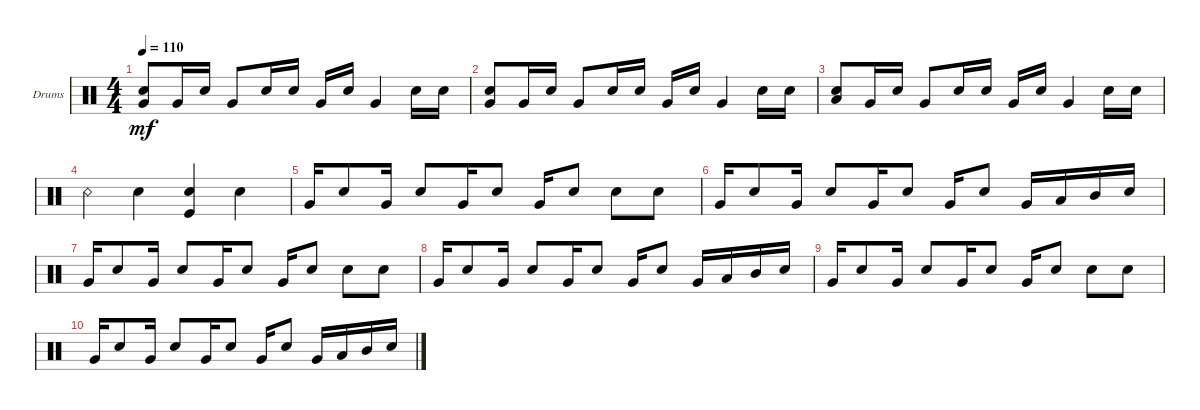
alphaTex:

\defaultSystemsLayout 4
\bracketExtendMode groupsimilarinstruments
\firstSystemTrackNameOrientation horizontal
\otherSystemsTrackNameOrientation horizontal
\track ("Drumkit" "Drums") {instrument percussion}
\staff {score}
\articulation defaults
\ts (4 4)
\tempo 110
\clef neutral
\ks c
("Snare (hit) 2" "Very Low Tom (hit)").8{dy mf} "Very Low Tom (hit)".16 "Snare (hit) 2".16 "Very Low Tom (hit)".8 "Snare (hit) 2".16 "Snare (hit) 2".16 "Very Low Tom (hit)".16 "Snare (hit) 2".16 "Very Low Tom (hit)".4 "Snare (hit) 2".16 "Snare (hit) 2".16 |
("Snare (hit) 2" "Very Low Tom (hit)").8 "Very Low Tom (hit)".16 "Snare (hit) 2".16 "Very Low Tom (hit)".8 "Snare (hit) 2".16 "Snare (hit) 2".16 "Very Low Tom (hit)".16 "Snare (hit) 2".16 "Very Low Tom (hit)".4 "Snare (hit) 2".16 "Snare (hit) 2".16 |
("Snare (hit) 2" "Low Tom (hit)").8 "Very Low Tom (hit)".16 "Snare (hit) 2".16 "Very Low Tom (hit)".8 "Snare (hit) 2".16 "Snare (hit) 2".16 "Very Low Tom (hit)".16 "Snare (hit) 2".16 "Very Low Tom (hit)".4 "Snare (hit) 2".16 "Snare (hit) 2".16 |
"Snare (rim shot)".4 "Snare (hit) 2".4 ("Snare (hit) 2" "Kick (hit)").4 "Snare (hit) 2".4 |
"Very Low Tom (hit)".16 "Snare (hit) 2".8 "Very Low Tom (hit)".16 "Snare (hit) 2".8 "Very Low Tom (hit)".16 "Snare (hit) 2".8 "Very Low Tom (hit)".16 "Snare (hit) 2".8 "Snare (hit) 2".8 "Snare (hit) 2".8 |
"Very Low Tom (hit)".16 "Snare (hit) 2".8 "Very Low Tom (hit)".16 "Snare (hit) 2".8 "Very Low Tom (hit)".16 "Snare (hit) 2".8 "Very Low Tom (hit)".16 "Snare (hit) 2".8 "Very Low Tom (hit)".16 "Low Tom (hit)".16 "Mid Tom (hit)".16 "Snare (hit) 2".16 |
"Very Low Tom (hit)".16 "Snare (hit) 2".8 "Very Low Tom (hit)".16 "Snare (hit) 2".8 "Very Low Tom (hit)".16 "Snare (hit) 2".8 "Very Low Tom (hit)".16 "Snare (hit) 2".8 "Snare (hit) 2".8 "Snare (hit) 2".8 |
"Very Low Tom (hit)".16 "Snare (hit) 2".8 "Very Low Tom (hit)".16 "Snare (hit) 2".8 "Very Low Tom (hit)".16 "Snare (hit) 2".8 "Very Low Tom (hit)".16 "Snare (hit) 2".8 "Very Low Tom (hit)".16 "Low Tom (hit)".16 "Mid Tom (hit)".16 "Snare (hit) 2".16 |
"Very Low Tom (hit)".16 "Snare (hit) 2".8 "Very Low Tom (hit)".16 "Snare (hit) 2".8 "Very Low Tom (hit)".16 "Snare (hit) 2".8 "Very Low Tom (hit)".16 "Snare (hit) 2".8 "Snare (hit) 2".8 "Snare (hit) 2".8 |
"Very Low Tom (hit)".16 "Snare (hit) 2".8 "Very Low Tom (hit)".16 "Snare (hit) 2".8 "Very Low Tom (hit)".16 "Snare (hit) 2".8 "Very Low Tom (hit)".16 "Snare (hit) 2".8 "Very Low Tom (hit)".16 "Low Tom (hit)".16 "Mid Tom (hit)".16 "Snare (hit) 2".16
